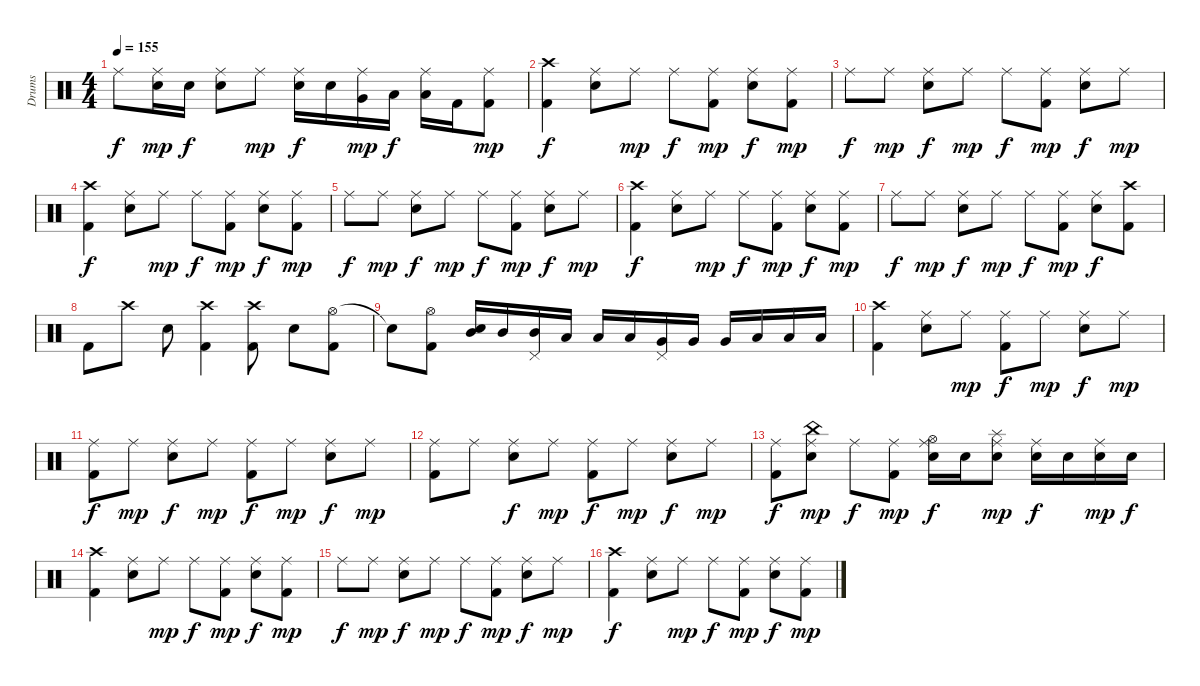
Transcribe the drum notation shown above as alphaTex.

\track ("Drums" "Drums") {instrument percussion}
\staff {score}
\articulation defaults
\ts (4 4)
\tempo 155
\clef neutral
\ks c "Ride (middle)".8{dy f}
("Electric Snare (hit)" "Ride (middle)").16{dy mp} "Electric Snare (hit)".16{dy f} ("Electric Snare (hit)" "Ride (middle)").8 "Ride (middle)".8{dy mp} ("Electric Snare (hit)" "Ride (middle)").16{dy f} "Electric Snare (hit)".16 ("Very Low Tom (hit)" "Ride (middle)").16{dy mp} "Low Floor Tom (hit)".16{dy f} ("Low Floor Tom (hit)" "Ride (middle)").16 "Kick (hit) 2".16 ("Kick (hit) 2" "Ride (middle)").8{dy mp} |
("Kick (hit) 2" "Crash high (hit)").4{dy f} ("Ride (middle)" "Electric Snare (hit)").8 "Ride (middle)".8{dy mp} "Ride (middle)".8{dy f} ("Kick (hit) 2" "Ride (middle)").8{dy mp} ("Electric Snare (hit)" "Ride (middle)").8{dy f} ("Kick (hit) 2" "Ride (middle)").8{dy mp} |
"Ride (middle)".8{dy f} "Ride (middle)".8{dy mp} ("Electric Snare (hit)" "Ride (middle)").8{dy f} "Ride (middle)".8{dy mp} "Ride (middle)".8{dy f} ("Kick (hit) 2" "Ride (middle)").8{dy mp} ("Electric Snare (hit)" "Ride (middle)").8{dy f} "Ride (middle)".8{dy mp} |
("Kick (hit) 2" "Crash high (hit)").4{dy f} ("Ride (middle)" "Electric Snare (hit)").8 "Ride (middle)".8{dy mp} "Ride (middle)".8{dy f} ("Kick (hit) 2" "Ride (middle)").8{dy mp} ("Electric Snare (hit)" "Ride (middle)").8{dy f} ("Kick (hit) 2" "Ride (middle)").8{dy mp} |
"Ride (middle)".8{dy f} "Ride (middle)".8{dy mp} ("Electric Snare (hit)" "Ride (middle)").8{dy f} "Ride (middle)".8{dy mp} "Ride (middle)".8{dy f} ("Kick (hit) 2" "Ride (middle)").8{dy mp} ("Electric Snare (hit)" "Ride (middle)").8{dy f} "Ride (middle)".8{dy mp} |
("Kick (hit) 2" "Crash high (hit)").4{dy f} ("Ride (middle)" "Electric Snare (hit)").8 "Ride (middle)".8{dy mp} "Ride (middle)".8{dy f} ("Kick (hit) 2" "Ride (middle)").8{dy mp} ("Electric Snare (hit)" "Ride (middle)").8{dy f} ("Kick (hit) 2" "Ride (middle)").8{dy mp} |
"Ride (middle)".8{dy f} "Ride (middle)".8{dy mp} ("Electric Snare (hit)" "Ride (middle)").8{dy f} "Ride (middle)".8{dy mp} "Ride (middle)".8{dy f} ("Kick (hit) 2" "Ride (middle)").8{dy mp} ("Electric Snare (hit)" "Ride (middle)").8{dy f} ("Crash high (hit)" "Kick (hit) 2").8 |
"Kick (hit) 2".8 "Crash high (hit)".8 "Electric Snare (hit)".8 ("Kick (hit) 2" "Crash high (hit)").4 ("Kick (hit) 2" "Crash high (hit)").8 "Electric Snare (hit)".8 ("Hi-Hat (open)" "Kick (hit) 2").8 |
"Snare (hit)"{t}.8 ("Kick (hit) 2" "Hi-Hat (open)").8 ("Electric Snare (hit)" "Mid Tom (hit)").16 "Mid Tom (hit)".16 ("Mid Tom (hit)" "Pedal Hi-Hat (hit)").16 "Low Tom (hit)".16 "Low Tom (hit)".16 "Low Tom (hit)".16 ("Very Low Tom (hit)" "Pedal Hi-Hat (hit)").16 "Very Low Tom (hit)".16 "Very Low Tom (hit)".16 "Low Floor Tom (hit)".16 "Low Floor Tom (hit)".16 "Low Floor Tom (hit)".16 |
("Kick (hit) 2" "Crash high (hit)").4 ("Ride (middle)" "Electric Snare (hit)").8 "Ride (middle)".8{dy mp} ("Kick (hit) 2" "Ride (middle)").8{dy f} "Ride (middle)".8{dy mp} ("Electric Snare (hit)" "Ride (middle)").8{dy f} "Ride (middle)".8{dy mp} |
("Kick (hit) 2" "Ride (middle)").8{dy f} "Ride (middle)".8{dy mp} ("Electric Snare (hit)" "Ride (middle)").8{dy f} "Ride (middle)".8{dy mp} ("Kick (hit) 2" "Ride (middle)").8{dy f} "Ride (middle)".8{dy mp} ("Electric Snare (hit)" "Ride (middle)").8{dy f} "Ride (middle)".8{dy mp} |
("Ride (middle)" "Kick (hit) 2").8 "Ride (middle)".8 ("Ride (middle)" "Electric Snare (hit)").8{dy f} "Ride (middle)".8{dy mp} ("Kick (hit) 2" "Ride (middle)").8{dy f} "Ride (middle)".8{dy mp} ("Electric Snare (hit)" "Ride (middle)").8{dy f} "Ride (middle)".8{dy mp} |
("Kick (hit) 2" "Ride (middle)").8{dy f} ("Electric Snare (hit)" "China (hit)" "Ride (middle)").8{dy mp} "Ride (middle)".8{dy f} ("Kick (hit) 2" "Ride (middle)").8{dy mp} ("Hi-Hat (open)" "Electric Snare (hit)" "Ride (middle)").16{dy f} "Electric Snare (hit)".16 ("Splash (hit)" "Electric Snare (hit)" "Ride (middle)").8{dy mp} ("Electric Snare (hit)" "Ride (middle)").16{dy f} "Electric Snare (hit)".16 ("Electric Snare (hit)" "Ride (middle)").16{dy mp} "Electric Snare (hit)".16{dy f} |
("Kick (hit) 2" "Crash high (hit)").4 ("Ride (middle)" "Electric Snare (hit)").8 "Ride (middle)".8{dy mp} "Ride (middle)".8{dy f} ("Kick (hit) 2" "Ride (middle)").8{dy mp} ("Electric Snare (hit)" "Ride (middle)").8{dy f} ("Kick (hit) 2" "Ride (middle)").8{dy mp} |
"Ride (middle)".8{dy f} "Ride (middle)".8{dy mp} ("Electric Snare (hit)" "Ride (middle)").8{dy f} "Ride (middle)".8{dy mp} "Ride (middle)".8{dy f} ("Kick (hit) 2" "Ride (middle)").8{dy mp} ("Electric Snare (hit)" "Ride (middle)").8{dy f} "Ride (middle)".8{dy mp} |
("Kick (hit) 2" "Crash high (hit)").4{dy f} ("Ride (middle)" "Electric Snare (hit)").8 "Ride (middle)".8{dy mp} "Ride (middle)".8{dy f} ("Kick (hit) 2" "Ride (middle)").8{dy mp} ("Electric Snare (hit)" "Ride (middle)").8{dy f} ("Kick (hit) 2" "Ride (middle)").8{dy mp}
